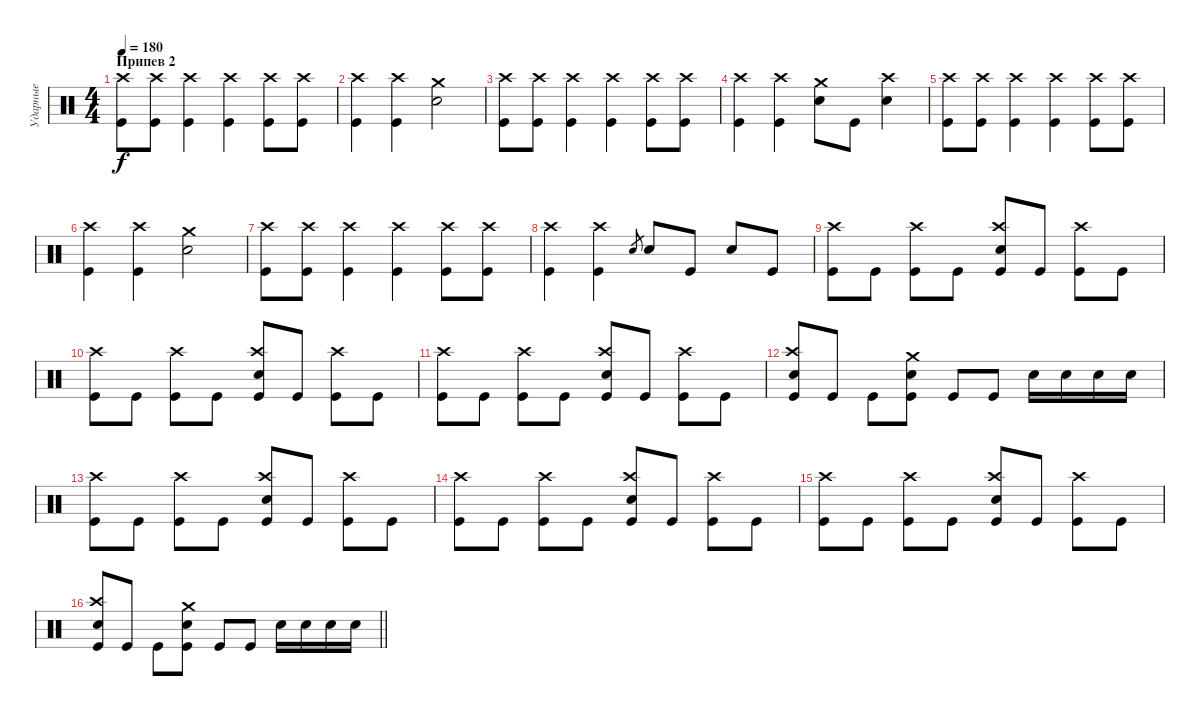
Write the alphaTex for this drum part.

\track ("Ударные" "Ударные") {instrument percussion}
\staff {score}
\articulation defaults
\ts (4 4)
\section ("" "Припев 2")
\tempo 180
\clef neutral
\ks c
("Kick (hit)" "Crash high (hit)").8{dy f} ("Crash high (hit)" "Kick (hit)").8 ("Kick (hit)" "Crash high (hit)").4 ("Kick (hit)" "Crash high (hit)").4 ("Kick (hit)" "Crash high (hit)").8 ("Kick (hit)" "Crash high (hit)").8 |
("Kick (hit)" "Crash high (hit)").4 ("Kick (hit)" "Crash high (hit)").4 ("Snare (hit) 2" "Crash medium (hit)").2 |
("Kick (hit)" "Crash high (hit)").8 ("Crash high (hit)" "Kick (hit)").8 ("Kick (hit)" "Crash high (hit)").4 ("Kick (hit)" "Crash high (hit)").4 ("Kick (hit)" "Crash high (hit)").8 ("Kick (hit)" "Crash high (hit)").8 |
("Kick (hit)" "Crash high (hit)").4 ("Kick (hit)" "Crash high (hit)").4 ("Snare (hit) 2" "Crash medium (hit)").8 "Kick (hit)".8 ("Snare (hit) 2" "Crash high (hit)").4 |
("Kick (hit)" "Crash high (hit)").8 ("Crash high (hit)" "Kick (hit)").8 ("Kick (hit)" "Crash high (hit)").4 ("Kick (hit)" "Crash high (hit)").4 ("Kick (hit)" "Crash high (hit)").8 ("Kick (hit)" "Crash high (hit)").8 |
("Kick (hit)" "Crash high (hit)").4 ("Kick (hit)" "Crash high (hit)").4 ("Snare (hit) 2" "Crash medium (hit)").2 |
("Kick (hit)" "Crash high (hit)").8 ("Crash high (hit)" "Kick (hit)").8 ("Kick (hit)" "Crash high (hit)").4 ("Kick (hit)" "Crash high (hit)").4 ("Kick (hit)" "Crash high (hit)").8 ("Kick (hit)" "Crash high (hit)").8 |
("Kick (hit)" "Crash high (hit)").4 ("Kick (hit)" "Crash high (hit)").4 "Snare (hit) 2".8{gr} "Snare (hit) 2".8 "Kick (hit)".8 "Snare (hit) 2".8 "Kick (hit)".8 |
("Kick (hit)" "Crash high (hit)").8 "Kick (hit)".8 ("Kick (hit)" "Crash high (hit)").8 "Kick (hit)".8 ("Kick (hit)" "Crash high (hit)" "Snare (hit) 2").8 "Kick (hit)".8 ("Kick (hit)" "Crash high (hit)").8 "Kick (hit)".8 |
("Kick (hit)" "Crash high (hit)").8 "Kick (hit)".8 ("Kick (hit)" "Crash high (hit)").8 "Kick (hit)".8 ("Kick (hit)" "Crash high (hit)" "Snare (hit) 2").8 "Kick (hit)".8 ("Kick (hit)" "Crash high (hit)").8 "Kick (hit)".8 |
("Kick (hit)" "Crash high (hit)").8 "Kick (hit)".8 ("Kick (hit)" "Crash high (hit)").8 "Kick (hit)".8 ("Kick (hit)" "Crash high (hit)" "Snare (hit) 2").8 "Kick (hit)".8 ("Kick (hit)" "Crash high (hit)").8 "Kick (hit)".8 |
("Kick (hit)" "Crash high (hit)" "Snare (hit) 2").8 "Kick (hit)".8 "Kick (hit)".8 ("Kick (hit)" "Snare (hit) 2" "Crash medium (hit)").8 "Kick (hit)".8 "Kick (hit)".8 "Snare (hit) 2".16 "Snare (hit) 2".16 "Snare (hit) 2".16 "Snare (hit) 2".16 |
("Kick (hit)" "Crash high (hit)").8 "Kick (hit)".8 ("Kick (hit)" "Crash high (hit)").8 "Kick (hit)".8 ("Kick (hit)" "Crash high (hit)" "Snare (hit) 2").8 "Kick (hit)".8 ("Kick (hit)" "Crash high (hit)").8 "Kick (hit)".8 |
("Kick (hit)" "Crash high (hit)").8 "Kick (hit)".8 ("Kick (hit)" "Crash high (hit)").8 "Kick (hit)".8 ("Kick (hit)" "Crash high (hit)" "Snare (hit) 2").8 "Kick (hit)".8 ("Kick (hit)" "Crash high (hit)").8 "Kick (hit)".8 |
("Kick (hit)" "Crash high (hit)").8 "Kick (hit)".8 ("Kick (hit)" "Crash high (hit)").8 "Kick (hit)".8 ("Kick (hit)" "Crash high (hit)" "Snare (hit) 2").8 "Kick (hit)".8 ("Kick (hit)" "Crash high (hit)").8 "Kick (hit)".8 |
\barLineRight lightlight
("Kick (hit)" "Crash high (hit)" "Snare (hit) 2").8 "Kick (hit)".8 "Kick (hit)".8 ("Kick (hit)" "Snare (hit) 2" "Crash medium (hit)").8 "Kick (hit)".8 "Kick (hit)".8 "Snare (hit) 2".16 "Snare (hit) 2".16 "Snare (hit) 2".16 "Snare (hit) 2".16
